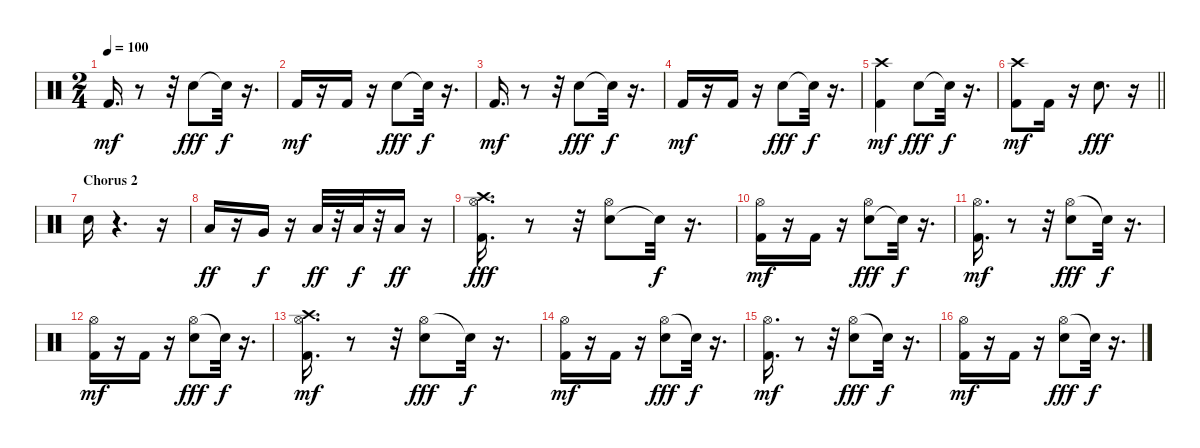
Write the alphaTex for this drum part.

\track "" {instrument percussion}
\staff {score}
\articulation defaults
\ts (2 4)
\tempo 100
\clef neutral
\ks c "Kick (hit) 2".16{d dy mf}
r.8 r.32 "Snare (hit) 2".8{dy fff} "Snare (hit)"{t}.32{dy f} r.16{d} |
"Kick (hit) 2".16{dy mf} r.16 "Kick (hit) 2".16 r.16 "Snare (hit) 2".8{dy fff} "Snare (hit)"{t}.32{dy f} r.16{d} |
"Kick (hit) 2".16{d dy mf} r.8 r.32 "Snare (hit) 2".8{dy fff} "Snare (hit)"{t}.32{dy f} r.16{d} |
"Kick (hit) 2".16{dy mf} r.16 "Kick (hit) 2".16 r.16 "Snare (hit) 2".8{dy fff} "Snare (hit)"{t}.32{dy f} r.16{d} |
("Crash high (hit)" "Kick (hit) 2").4{dy mf} "Snare (hit) 2".8{dy fff} "Snare (hit)"{t}.32{dy f} r.16{d} |
\barLineRight lightlight
("Crash high (hit)" "Kick (hit) 2").8{dy mf} "Kick (hit) 2".16 r.16 "Snare (hit) 2".8{d dy fff} r.16 |
\section ("" "Chorus 2")
"Snare (hit) 2".16 r.4{d} r.16 |
"Low Floor Tom (hit)".16{dy ff} r.16 "Very Low Tom (hit)".16{dy f} r.16 "Low Tom (hit)".32{dy ff} r.32 "Low Tom (hit)".32{dy f} r.32 "Low Tom (hit)".16{dy ff} r.16 |
("Kick (hit) 2" "Hi-Hat (open)" "Crash high (hit)").16{d dy fff} r.8 r.32 ("Snare (hit) 2" "Hi-Hat (open)").8 "Snare (hit)"{t}.32{dy f} r.16{d} |
("Kick (hit) 2" "Hi-Hat (open)").16{dy mf} r.16 "Kick (hit) 2".16 r.16 ("Snare (hit) 2" "Hi-Hat (open)").8{dy fff} "Snare (hit)"{t}.32{dy f} r.16{d} |
("Hi-Hat (open)" "Kick (hit) 2").16{d dy mf} r.8 r.32 ("Hi-Hat (open)" "Snare (hit) 2").8{dy fff} "Snare (hit)"{t}.32{dy f} r.16{d} |
("Hi-Hat (open)" "Kick (hit) 2").16{dy mf} r.16 "Kick (hit) 2".16 r.16 ("Hi-Hat (open)" "Snare (hit) 2").8{dy fff} "Snare (hit)"{t}.32{dy f} r.16{d} |
("Hi-Hat (open)" "Crash high (hit)" "Kick (hit) 2").16{d dy mf} r.8 r.32 ("Hi-Hat (open)" "Snare (hit) 2").8{dy fff} "Snare (hit)"{t}.32{dy f} r.16{d} |
("Hi-Hat (open)" "Kick (hit) 2").16{dy mf} r.16 "Kick (hit) 2".16 r.16 ("Hi-Hat (open)" "Snare (hit) 2").8{dy fff} "Snare (hit)"{t}.32{dy f} r.16{d} |
("Hi-Hat (open)" "Kick (hit) 2").16{d dy mf} r.8 r.32 ("Hi-Hat (open)" "Snare (hit) 2").8{dy fff} "Snare (hit)"{t}.32{dy f} r.16{d} |
("Hi-Hat (open)" "Kick (hit) 2").16{dy mf} r.16 "Kick (hit) 2".16 r.16 ("Hi-Hat (open)" "Snare (hit) 2").8{dy fff} "Snare (hit)"{t}.32{dy f} r.16{d}
